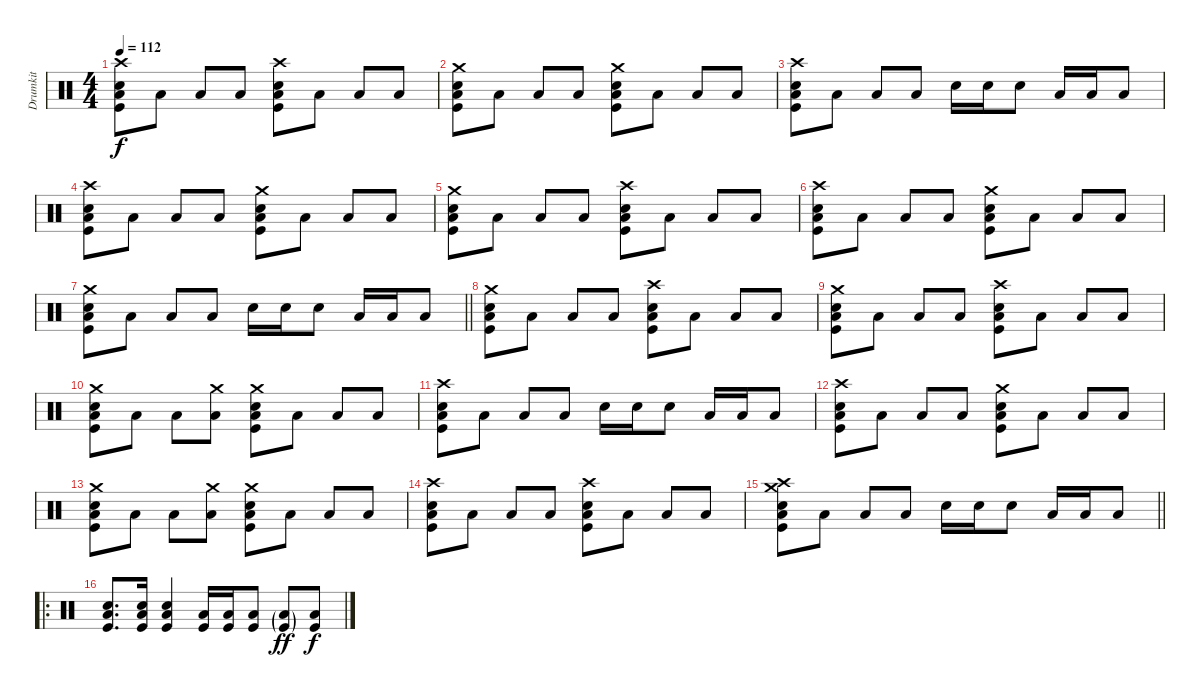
\track ("Drumkit" "Drumkit") {instrument percussion}
\staff {score}
\articulation defaults
\ts (4 4)
\tempo 112
\clef neutral
\ks c
("Snare (hit) 2" "Low Floor Tom (hit)" "Kick (hit)" "Crash high (hit)").8{dy f} "Low Floor Tom (hit)".8 "Low Floor Tom (hit)".8 "Low Floor Tom (hit)".8 ("Snare (hit) 2" "Low Floor Tom (hit)" "Kick (hit)" "Crash high (hit)").8 "Low Floor Tom (hit)".8 "Low Floor Tom (hit)".8 "Low Floor Tom (hit)".8 |
("Snare (hit) 2" "Low Floor Tom (hit)" "Kick (hit)" "Crash medium (hit)").8 "Low Floor Tom (hit)".8 "Low Floor Tom (hit)".8 "Low Floor Tom (hit)".8 ("Snare (hit) 2" "Low Floor Tom (hit)" "Kick (hit)" "Crash medium (hit)").8 "Low Floor Tom (hit)".8 "Low Floor Tom (hit)".8 "Low Floor Tom (hit)".8 |
("Snare (hit) 2" "Low Floor Tom (hit)" "Kick (hit)" "Crash high (hit)").8 "Low Floor Tom (hit)".8 "Low Floor Tom (hit)".8 "Low Floor Tom (hit)".8 "Snare (hit) 2".16 "Snare (hit) 2".16 "Snare (hit) 2".8 "Low Tom (hit)".16 "Low Tom (hit)".16 "Low Tom (hit)".8 |
("Snare (hit) 2" "Low Floor Tom (hit)" "Kick (hit)" "Crash high (hit)").8 "Low Floor Tom (hit)".8 "Low Floor Tom (hit)".8 "Low Floor Tom (hit)".8 ("Snare (hit) 2" "Low Floor Tom (hit)" "Kick (hit)" "Crash medium (hit)").8 "Low Floor Tom (hit)".8 "Low Floor Tom (hit)".8 "Low Floor Tom (hit)".8 |
("Snare (hit) 2" "Low Floor Tom (hit)" "Kick (hit)" "Crash medium (hit)").8 "Low Floor Tom (hit)".8 "Low Floor Tom (hit)".8 "Low Floor Tom (hit)".8 ("Snare (hit) 2" "Low Floor Tom (hit)" "Kick (hit)" "Crash high (hit)").8 "Low Floor Tom (hit)".8 "Low Floor Tom (hit)".8 "Low Floor Tom (hit)".8 |
("Snare (hit) 2" "Low Floor Tom (hit)" "Kick (hit)" "Crash high (hit)").8 "Low Floor Tom (hit)".8 "Low Floor Tom (hit)".8 "Low Floor Tom (hit)".8 ("Snare (hit) 2" "Low Floor Tom (hit)" "Kick (hit)" "Crash medium (hit)").8 "Low Floor Tom (hit)".8 "Low Floor Tom (hit)".8 "Low Floor Tom (hit)".8 |
\barLineRight lightlight
("Snare (hit) 2" "Low Floor Tom (hit)" "Kick (hit)" "Crash medium (hit)").8 "Low Floor Tom (hit)".8 "Low Floor Tom (hit)".8 "Low Floor Tom (hit)".8 "Snare (hit) 2".16 "Snare (hit) 2".16 "Snare (hit) 2".8 "Low Tom (hit)".16 "Low Tom (hit)".16 "Low Tom (hit)".8 |
("Snare (hit) 2" "Low Floor Tom (hit)" "Kick (hit)" "Crash medium (hit)").8 "Low Floor Tom (hit)".8 "Low Floor Tom (hit)".8 "Low Floor Tom (hit)".8 ("Snare (hit) 2" "Low Floor Tom (hit)" "Kick (hit)" "Crash high (hit)").8 "Low Floor Tom (hit)".8 "Low Floor Tom (hit)".8 "Low Floor Tom (hit)".8 |
("Snare (hit) 2" "Low Floor Tom (hit)" "Kick (hit)" "Crash medium (hit)").8 "Low Floor Tom (hit)".8 "Low Floor Tom (hit)".8 "Low Floor Tom (hit)".8 ("Snare (hit) 2" "Low Floor Tom (hit)" "Kick (hit)" "Crash high (hit)").8 "Low Floor Tom (hit)".8 "Low Floor Tom (hit)".8 "Low Floor Tom (hit)".8 |
("Snare (hit) 2" "Low Floor Tom (hit)" "Kick (hit)" "Crash medium (hit)").8 "Low Floor Tom (hit)".8 "Low Floor Tom (hit)".8 ("Low Floor Tom (hit)" "Crash medium (hit)").8 ("Snare (hit) 2" "Low Floor Tom (hit)" "Kick (hit)" "Crash medium (hit)").8 "Low Floor Tom (hit)".8 "Low Floor Tom (hit)".8 "Low Floor Tom (hit)".8 |
("Snare (hit) 2" "Low Floor Tom (hit)" "Kick (hit)" "Crash high (hit)").8 "Low Floor Tom (hit)".8 "Low Floor Tom (hit)".8 "Low Floor Tom (hit)".8 "Snare (hit) 2".16 "Snare (hit) 2".16 "Snare (hit) 2".8 "Low Tom (hit)".16 "Low Tom (hit)".16 "Low Tom (hit)".8 |
("Snare (hit) 2" "Low Floor Tom (hit)" "Kick (hit)" "Crash high (hit)").8 "Low Floor Tom (hit)".8 "Low Floor Tom (hit)".8 "Low Floor Tom (hit)".8 ("Snare (hit) 2" "Low Floor Tom (hit)" "Kick (hit)" "Crash medium (hit)").8 "Low Floor Tom (hit)".8 "Low Floor Tom (hit)".8 "Low Floor Tom (hit)".8 |
("Snare (hit) 2" "Low Floor Tom (hit)" "Kick (hit)" "Crash medium (hit)").8 "Low Floor Tom (hit)".8 "Low Floor Tom (hit)".8 ("Low Floor Tom (hit)" "Crash medium (hit)").8 ("Snare (hit) 2" "Low Floor Tom (hit)" "Kick (hit)" "Crash medium (hit)").8 "Low Floor Tom (hit)".8 "Low Floor Tom (hit)".8 "Low Floor Tom (hit)".8 |
("Snare (hit) 2" "Low Floor Tom (hit)" "Kick (hit)" "Crash high (hit)").8 "Low Floor Tom (hit)".8 "Low Floor Tom (hit)".8 "Low Floor Tom (hit)".8 ("Snare (hit) 2" "Low Floor Tom (hit)" "Kick (hit)" "Crash high (hit)").8 "Low Floor Tom (hit)".8 "Low Floor Tom (hit)".8 "Low Floor Tom (hit)".8 |
\barLineRight lightlight
("Snare (hit) 2" "Low Floor Tom (hit)" "Kick (hit)" "Crash high (hit)" "Crash medium (hit)").8 "Low Floor Tom (hit)".8 "Low Floor Tom (hit)".8 "Low Floor Tom (hit)".8 "Snare (hit) 2".16 "Snare (hit) 2".16 "Snare (hit) 2".8 "Low Tom (hit)".16 "Low Tom (hit)".16 "Low Tom (hit)".8 |
\ro
("Snare (hit) 2" "Low Floor Tom (hit)" "Kick (hit)").8{d} ("Snare (hit) 2" "Low Floor Tom (hit)" "Kick (hit)").16 ("Snare (hit) 2" "Low Floor Tom (hit)" "Kick (hit)").4 ("Low Floor Tom (hit)" "Kick (hit)").16 ("Low Floor Tom (hit)" "Kick (hit)").16 ("Low Floor Tom (hit)" "Kick (hit)").8 ("Low Floor Tom (hit)"{g} "Kick (hit)"{g}).8{dy ff} ("Low Floor Tom (hit)" "Kick (hit)").8{dy f}
